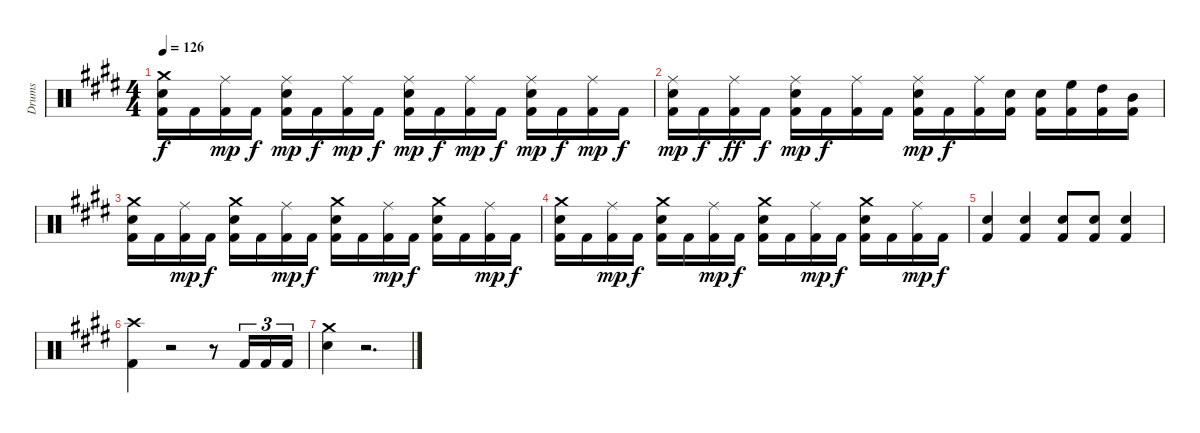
\track ("Drums" "Drums") {instrument percussion}
\staff {score}
\articulation defaults
\ts (4 4)
\tempo 126
\clef neutral
\ks c#minor
("Crash medium (hit)" "Snare (hit) 2" "Kick (hit) 2").16{dy f} "Kick (hit) 2".16 ("Ride (middle)" "Kick (hit) 2").16{dy mp} "Kick (hit) 2".16{dy f} ("Ride (middle)" "Snare (hit) 2" "Kick (hit) 2").16{dy mp} "Kick (hit) 2".16{dy f} ("Ride (middle)" "Kick (hit) 2").16{dy mp} "Kick (hit) 2".16{dy f} ("Ride (middle)" "Snare (hit) 2" "Kick (hit) 2").16{dy mp} "Kick (hit) 2".16{dy f} ("Ride (middle)" "Kick (hit) 2").16{dy mp} "Kick (hit) 2".16{dy f} ("Ride (middle)" "Snare (hit) 2" "Kick (hit) 2").16{dy mp} "Kick (hit) 2".16{dy f} ("Ride (middle)" "Kick (hit) 2").16{dy mp} "Kick (hit) 2".16{dy f} |
("Ride (middle)" "Snare (hit) 2" "Kick (hit) 2").16{dy mp} "Kick (hit) 2".16{dy f} ("Ride (middle)" "Kick (hit) 2").16{dy ff} "Kick (hit) 2".16{dy f} ("Ride (middle)" "Snare (hit) 2" "Kick (hit) 2").16{dy mp} "Kick (hit) 2".16{dy f} ("Ride (middle)" "Kick (hit) 2").16 "Kick (hit) 2".16 ("Ride (middle)" "Snare (hit) 2" "Kick (hit) 2").16{dy mp} "Kick (hit) 2".16{dy f} ("Ride (middle)" "Kick (hit) 2").16 ("Snare (hit) 2" "Kick (hit) 2").16 ("Snare (hit) 2" "Kick (hit) 2").16 ("High Floor Tom (hit)" "Kick (hit) 2").16 ("High Tom (hit)" "Kick (hit) 2").16 ("Mid Tom (hit)" "Kick (hit) 2").16 |
("Crash medium (hit)" "Snare (hit) 2" "Kick (hit) 2").16 "Kick (hit) 2".16 ("Ride (middle)" "Kick (hit) 2").16{dy mp} "Kick (hit) 2".16{dy f} ("Crash medium (hit)" "Snare (hit) 2" "Kick (hit) 2").16 "Kick (hit) 2".16 ("Ride (middle)" "Kick (hit) 2").16{dy mp} "Kick (hit) 2".16{dy f} ("Crash medium (hit)" "Snare (hit) 2" "Kick (hit) 2").16 "Kick (hit) 2".16 ("Ride (middle)" "Kick (hit) 2").16{dy mp} "Kick (hit) 2".16{dy f} ("Crash medium (hit)" "Snare (hit) 2" "Kick (hit) 2").16 "Kick (hit) 2".16 ("Ride (middle)" "Kick (hit) 2").16{dy mp} "Kick (hit) 2".16{dy f} |
("Crash medium (hit)" "Snare (hit) 2" "Kick (hit) 2").16 "Kick (hit) 2".16 ("Ride (middle)" "Kick (hit) 2").16{dy mp} "Kick (hit) 2".16{dy f} ("Crash medium (hit)" "Snare (hit) 2" "Kick (hit) 2").16 "Kick (hit) 2".16 ("Ride (middle)" "Kick (hit) 2").16{dy mp} "Kick (hit) 2".16{dy f} ("Crash medium (hit)" "Snare (hit) 2" "Kick (hit) 2").16 "Kick (hit) 2".16 ("Ride (middle)" "Kick (hit) 2").16{dy mp} "Kick (hit) 2".16{dy f} ("Crash medium (hit)" "Snare (hit) 2" "Kick (hit) 2").16 "Kick (hit) 2".16 ("Ride (middle)" "Kick (hit) 2").16{dy mp} "Kick (hit) 2".16{dy f} |
("Snare (hit) 2" "Kick (hit) 2").4 ("Snare (hit) 2" "Kick (hit) 2").4 ("Snare (hit) 2" "Kick (hit) 2").8 ("Snare (hit) 2" "Kick (hit) 2").8 ("Snare (hit) 2" "Kick (hit) 2").4 |
("Crash high (hit)" "Kick (hit) 2").4 r.2 r.8 "Kick (hit) 2".16{tu (3 2)} "Kick (hit) 2".16{tu (3 2)} "Kick (hit) 2".16{tu (3 2)} |
("Crash medium (hit)" "Snare (hit) 2").4 r.2{d}
